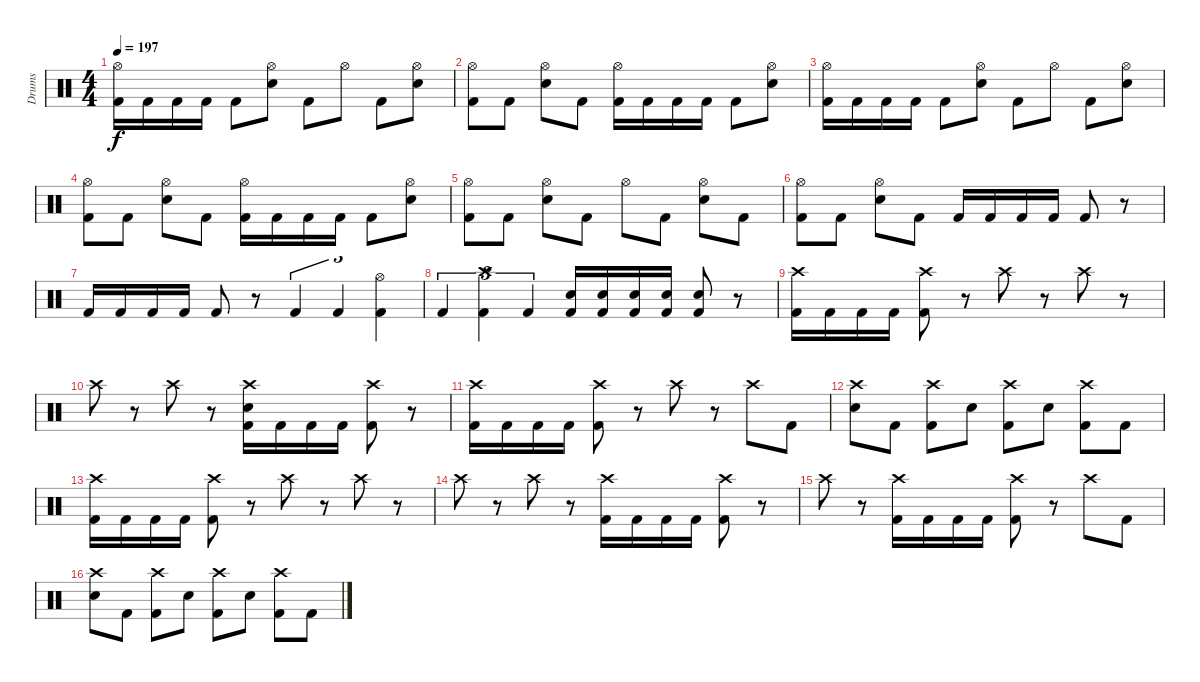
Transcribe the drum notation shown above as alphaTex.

\track ("Drums" "Drums") {instrument percussion}
\staff {score}
\articulation defaults
\ts (4 4)
\tempo 197
\clef neutral
\ks c
("Hi-Hat (open)" "Kick (hit) 2").16{dy f} "Kick (hit) 2".16 "Kick (hit) 2".16 "Kick (hit) 2".16 "Kick (hit) 2".8 ("Hi-Hat (open)" "Electric Snare (hit)").8 "Kick (hit) 2".8 "Hi-Hat (open)".8 "Kick (hit) 2".8 ("Hi-Hat (open)" "Electric Snare (hit)").8 |
("Hi-Hat (open)" "Kick (hit) 2").8 "Kick (hit) 2".8 ("Hi-Hat (open)" "Electric Snare (hit)").8 "Kick (hit) 2".8 ("Hi-Hat (open)" "Kick (hit) 2").16 "Kick (hit) 2".16 "Kick (hit) 2".16 "Kick (hit) 2".16 "Kick (hit) 2".8 ("Hi-Hat (open)" "Electric Snare (hit)").8 |
("Hi-Hat (open)" "Kick (hit) 2").16 "Kick (hit) 2".16 "Kick (hit) 2".16 "Kick (hit) 2".16 "Kick (hit) 2".8 ("Hi-Hat (open)" "Electric Snare (hit)").8 "Kick (hit) 2".8 "Hi-Hat (open)".8 "Kick (hit) 2".8 ("Hi-Hat (open)" "Electric Snare (hit)").8 |
("Hi-Hat (open)" "Kick (hit) 2").8 "Kick (hit) 2".8 ("Hi-Hat (open)" "Electric Snare (hit)").8 "Kick (hit) 2".8 ("Hi-Hat (open)" "Kick (hit) 2").16 "Kick (hit) 2".16 "Kick (hit) 2".16 "Kick (hit) 2".16 "Kick (hit) 2".8 ("Hi-Hat (open)" "Electric Snare (hit)").8 |
("Hi-Hat (open)" "Kick (hit) 2").8 "Kick (hit) 2".8 ("Hi-Hat (open)" "Electric Snare (hit)").8 "Kick (hit) 2".8 "Hi-Hat (open)".8 "Kick (hit) 2".8 ("Hi-Hat (open)" "Electric Snare (hit)").8 "Kick (hit) 2".8 |
("Hi-Hat (open)" "Kick (hit) 2").8 "Kick (hit) 2".8 ("Hi-Hat (open)" "Electric Snare (hit)").8 "Kick (hit) 2".8 "Kick (hit) 2".16 "Kick (hit) 2".16 "Kick (hit) 2".16 "Kick (hit) 2".16 "Kick (hit) 2".8 r.8 |
"Kick (hit) 2".16 "Kick (hit) 2".16 "Kick (hit) 2".16 "Kick (hit) 2".16 "Kick (hit) 2".8 r.8 "Kick (hit) 2".4{tu (3 2)} "Kick (hit) 2".4{tu (3 2)} ("Hi-Hat (open)" "Kick (hit) 2").4{tu (3 2)} |
"Kick (hit) 2".4{tu (3 2)} ("Crash high (hit)" "Kick (hit) 2").4{tu (3 2)} "Kick (hit) 2".4{tu (3 2)} ("Electric Snare (hit)" "Kick (hit) 2").16 ("Electric Snare (hit)" "Kick (hit) 2").16 ("Electric Snare (hit)" "Kick (hit) 2").16 ("Electric Snare (hit)" "Kick (hit) 2").16 ("Electric Snare (hit)" "Kick (hit) 2").8 r.8 |
("Crash high (hit)" "Kick (hit) 2").16 "Kick (hit) 2".16 "Kick (hit) 2".16 "Kick (hit) 2".16 ("Crash high (hit)" "Kick (hit) 2").8 r.8 "Crash high (hit)".8 r.8 "Crash high (hit)".8 r.8 |
"Crash high (hit)".8 r.8 "Crash high (hit)".8 r.8 ("Crash high (hit)" "Electric Snare (hit)" "Kick (hit) 2").16 "Kick (hit) 2".16 "Kick (hit) 2".16 "Kick (hit) 2".16 ("Crash high (hit)" "Kick (hit) 2").8 r.8 |
("Crash high (hit)" "Kick (hit) 2").16 "Kick (hit) 2".16 "Kick (hit) 2".16 "Kick (hit) 2".16 ("Crash high (hit)" "Kick (hit) 2").8 r.8 "Crash high (hit)".8 r.8 "Crash high (hit)".8 "Kick (hit) 2".8 |
("Crash high (hit)" "Electric Snare (hit)").8 "Kick (hit) 2".8 ("Crash high (hit)" "Kick (hit) 2").8 "Electric Snare (hit)".8 ("Crash high (hit)" "Kick (hit) 2").8 "Electric Snare (hit)".8 ("Crash high (hit)" "Kick (hit) 2").8 "Kick (hit) 2".8 |
("Crash high (hit)" "Kick (hit) 2").16 "Kick (hit) 2".16 "Kick (hit) 2".16 "Kick (hit) 2".16 ("Crash high (hit)" "Kick (hit) 2").8 r.8 "Crash high (hit)".8 r.8 "Crash high (hit)".8 r.8 |
"Crash high (hit)".8 r.8 "Crash high (hit)".8 r.8 ("Crash high (hit)" "Kick (hit) 2").16 "Kick (hit) 2".16 "Kick (hit) 2".16 "Kick (hit) 2".16 ("Crash high (hit)" "Kick (hit) 2").8 r.8 |
"Crash high (hit)".8 r.8 ("Crash high (hit)" "Kick (hit) 2").16 "Kick (hit) 2".16 "Kick (hit) 2".16 "Kick (hit) 2".16 ("Crash high (hit)" "Kick (hit) 2").8 r.8 "Crash high (hit)".8 "Kick (hit) 2".8 |
("Crash high (hit)" "Electric Snare (hit)").8 "Kick (hit) 2".8 ("Crash high (hit)" "Kick (hit) 2").8 "Electric Snare (hit)".8 ("Crash high (hit)" "Kick (hit) 2").8 "Electric Snare (hit)".8 ("Crash high (hit)" "Kick (hit) 2").8 "Kick (hit) 2".8
